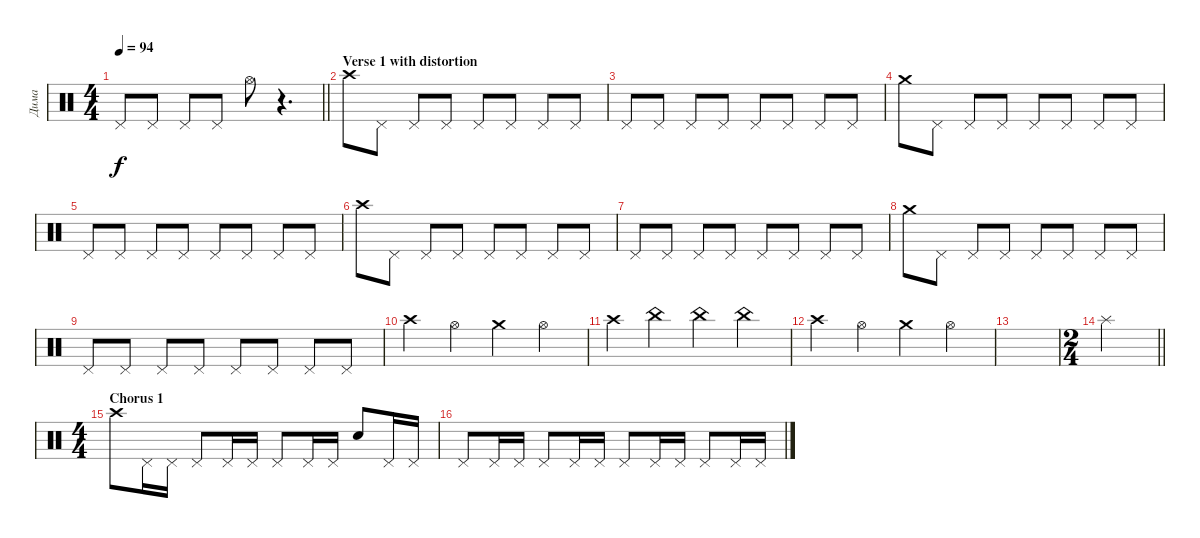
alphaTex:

\track ("Дима" "Дима") {instrument percussion}
\staff {score}
\articulation defaults
\ts (4 4)
\tempo 94
\clef neutral
\barLineRight lightlight
\ks c "Pedal Hi-Hat (hit)".8{dy f} "Pedal Hi-Hat (hit)".8 "Pedal Hi-Hat (hit)".8 "Pedal Hi-Hat (hit)".8 "Hi-Hat (open)".8
r.4{d} |
\section ("" "Verse 1 with distortion")
"Crash high (hit)".8 "Pedal Hi-Hat (hit)".8 "Pedal Hi-Hat (hit)".8 "Pedal Hi-Hat (hit)".8 "Pedal Hi-Hat (hit)".8 "Pedal Hi-Hat (hit)".8 "Pedal Hi-Hat (hit)".8 "Pedal Hi-Hat (hit)".8 |
"Pedal Hi-Hat (hit)".8 "Pedal Hi-Hat (hit)".8 "Pedal Hi-Hat (hit)".8 "Pedal Hi-Hat (hit)".8 "Pedal Hi-Hat (hit)".8 "Pedal Hi-Hat (hit)".8 "Pedal Hi-Hat (hit)".8 "Pedal Hi-Hat (hit)".8 |
"Crash medium (hit)".8 "Pedal Hi-Hat (hit)".8 "Pedal Hi-Hat (hit)".8 "Pedal Hi-Hat (hit)".8 "Pedal Hi-Hat (hit)".8 "Pedal Hi-Hat (hit)".8 "Pedal Hi-Hat (hit)".8 "Pedal Hi-Hat (hit)".8 |
"Pedal Hi-Hat (hit)".8 "Pedal Hi-Hat (hit)".8 "Pedal Hi-Hat (hit)".8 "Pedal Hi-Hat (hit)".8 "Pedal Hi-Hat (hit)".8 "Pedal Hi-Hat (hit)".8 "Pedal Hi-Hat (hit)".8 "Pedal Hi-Hat (hit)".8 |
"Crash high (hit)".8 "Pedal Hi-Hat (hit)".8 "Pedal Hi-Hat (hit)".8 "Pedal Hi-Hat (hit)".8 "Pedal Hi-Hat (hit)".8 "Pedal Hi-Hat (hit)".8 "Pedal Hi-Hat (hit)".8 "Pedal Hi-Hat (hit)".8 |
"Pedal Hi-Hat (hit)".8 "Pedal Hi-Hat (hit)".8 "Pedal Hi-Hat (hit)".8 "Pedal Hi-Hat (hit)".8 "Pedal Hi-Hat (hit)".8 "Pedal Hi-Hat (hit)".8 "Pedal Hi-Hat (hit)".8 "Pedal Hi-Hat (hit)".8 |
"Crash medium (hit)".8 "Pedal Hi-Hat (hit)".8 "Pedal Hi-Hat (hit)".8 "Pedal Hi-Hat (hit)".8 "Pedal Hi-Hat (hit)".8 "Pedal Hi-Hat (hit)".8 "Pedal Hi-Hat (hit)".8 "Pedal Hi-Hat (hit)".8 |
"Pedal Hi-Hat (hit)".8 "Pedal Hi-Hat (hit)".8 "Pedal Hi-Hat (hit)".8 "Pedal Hi-Hat (hit)".8 "Pedal Hi-Hat (hit)".8 "Pedal Hi-Hat (hit)".8 "Pedal Hi-Hat (hit)".8 "Pedal Hi-Hat (hit)".8 |
"Crash high (hit)".4 "Hi-Hat (open)".4 "Crash medium (hit)".4 "Hi-Hat (open)".4 |
"Crash high (hit)".4 "China (hit)".4 "China (hit)".4 "China (hit)".4 |
"Crash high (hit)".4 "Hi-Hat (open)".4 "Crash medium (hit)".4 "Hi-Hat (open)".4 |
|
\ts (2 4)
\barLineRight lightlight "Splash (hit)".2
|
\ts (4 4)
\section ("" "Chorus 1")
"Crash high (hit)".8 "Pedal Hi-Hat (hit)".16 "Pedal Hi-Hat (hit)".16 "Pedal Hi-Hat (hit)".8 "Pedal Hi-Hat (hit)".16 "Pedal Hi-Hat (hit)".16 "Pedal Hi-Hat (hit)".8 "Pedal Hi-Hat (hit)".16 "Pedal Hi-Hat (hit)".16 "Snare (hit)".8 "Pedal Hi-Hat (hit)".16 "Pedal Hi-Hat (hit)".16 |
"Pedal Hi-Hat (hit)".8 "Pedal Hi-Hat (hit)".16 "Pedal Hi-Hat (hit)".16 "Pedal Hi-Hat (hit)".8 "Pedal Hi-Hat (hit)".16 "Pedal Hi-Hat (hit)".16 "Pedal Hi-Hat (hit)".8 "Pedal Hi-Hat (hit)".16 "Pedal Hi-Hat (hit)".16 "Pedal Hi-Hat (hit)".8 "Pedal Hi-Hat (hit)".16 "Pedal Hi-Hat (hit)".16
